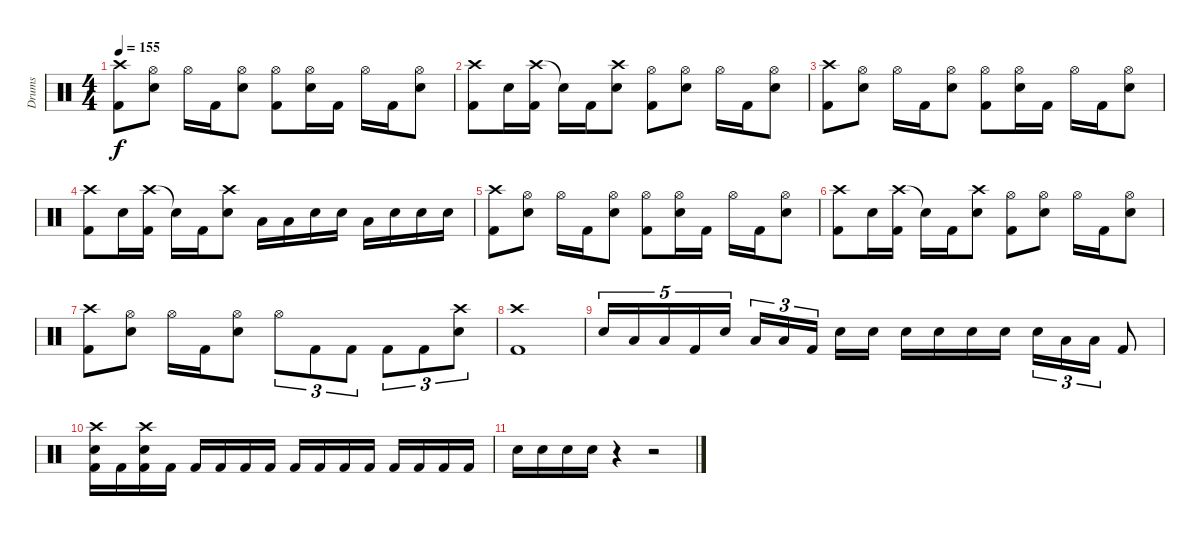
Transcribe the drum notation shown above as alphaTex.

\track ("Drums" "Drums") {instrument percussion}
\staff {score}
\articulation defaults
\ts (4 4)
\tempo 155
\clef neutral
\ks c
("Crash high (hit)" "Kick (hit) 2").8{dy f} ("Hi-Hat (open)" "Snare (hit) 2").8 "Hi-Hat (open)".16 "Kick (hit) 2".16 ("Hi-Hat (open)" "Snare (hit) 2").8 ("Hi-Hat (open)" "Kick (hit) 2").8 ("Hi-Hat (open)" "Snare (hit) 2").16 "Kick (hit) 2".16 "Hi-Hat (open)".16 "Kick (hit) 2".16 ("Hi-Hat (open)" "Snare (hit) 2").8 |
("Crash high (hit)" "Kick (hit) 2").8 "Snare (hit) 2".16 ("Crash high (hit)" "Kick (hit) 2").16 "Snare (hit)"{t}.16 "Kick (hit) 2".16 ("Crash high (hit)" "Snare (hit) 2").8 ("Hi-Hat (open)" "Kick (hit) 2").8 ("Hi-Hat (open)" "Snare (hit) 2").8 "Hi-Hat (open)".16 "Kick (hit) 2".16 ("Hi-Hat (open)" "Snare (hit) 2").8 |
("Crash high (hit)" "Kick (hit) 2").8 ("Hi-Hat (open)" "Snare (hit) 2").8 "Hi-Hat (open)".16 "Kick (hit) 2".16 ("Hi-Hat (open)" "Snare (hit) 2").8 ("Hi-Hat (open)" "Kick (hit) 2").8 ("Hi-Hat (open)" "Snare (hit) 2").16 "Kick (hit) 2".16 "Hi-Hat (open)".16 "Kick (hit) 2".16 ("Hi-Hat (open)" "Snare (hit) 2").8 |
("Crash high (hit)" "Kick (hit) 2").8 "Snare (hit) 2".16 ("Crash high (hit)" "Kick (hit) 2").16 "Snare (hit)"{t}.16 "Kick (hit) 2".16 ("Crash high (hit)" "Snare (hit) 2").8 "Low Tom (hit)".16 "Low Tom (hit)".16 "Snare (hit) 2".16 "Snare (hit) 2".16 "Low Floor Tom (hit)".16 "Snare (hit) 2".16 "Snare (hit) 2".16 "Snare (hit) 2".16 |
("Crash high (hit)" "Kick (hit) 2").8 ("Hi-Hat (open)" "Snare (hit) 2").8 "Hi-Hat (open)".16 "Kick (hit) 2".16 ("Hi-Hat (open)" "Snare (hit) 2").8 ("Hi-Hat (open)" "Kick (hit) 2").8 ("Hi-Hat (open)" "Snare (hit) 2").16 "Kick (hit) 2".16 "Hi-Hat (open)".16 "Kick (hit) 2".16 ("Hi-Hat (open)" "Snare (hit) 2").8 |
("Crash high (hit)" "Kick (hit) 2").8 "Snare (hit) 2".16 ("Crash high (hit)" "Kick (hit) 2").16 "Snare (hit)"{t}.16 "Kick (hit) 2".16 ("Crash high (hit)" "Snare (hit) 2").8 ("Hi-Hat (open)" "Kick (hit) 2").8 ("Hi-Hat (open)" "Snare (hit) 2").8 "Hi-Hat (open)".16 "Kick (hit) 2".16 ("Hi-Hat (open)" "Snare (hit) 2").8 |
("Crash high (hit)" "Kick (hit) 2").8 ("Hi-Hat (open)" "Snare (hit) 2").8 "Hi-Hat (open)".16 "Kick (hit) 2".16 ("Hi-Hat (open)" "Snare (hit) 2").8 "Hi-Hat (open)".8{tu (3 2)} "Kick (hit) 2".8{tu (3 2)} "Kick (hit) 2".8{tu (3 2)} "Kick (hit) 2".8{tu (3 2)} "Kick (hit) 2".8{tu (3 2)} ("Crash high (hit)" "Snare (hit) 2").8{tu (3 2)} |
("Crash high (hit)" "Kick (hit) 2").1 |
"Snare (hit) 2".16{tu (5 4)} "Low Tom (hit)".16{tu (5 4)} "Low Tom (hit)".16{tu (5 4)} "Kick (hit) 2".16{tu (5 4)} "Snare (hit) 2".16{tu (5 4)} "Low Tom (hit)".16{tu (3 2)} "Low Tom (hit)".16{tu (3 2)} "Kick (hit) 2".16{tu (3 2)} "Snare (hit) 2".16 "Snare (hit) 2".16 "Snare (hit) 2".16 "Snare (hit) 2".16 "Snare (hit) 2".16 "Snare (hit) 2".16 "Snare (hit) 2".16{tu (3 2)} "Low Tom (hit)".16{tu (3 2)} "Low Floor Tom (hit)".16{tu (3 2)} "Kick (hit) 2".8 |
("Crash high (hit)" "Snare (hit) 2" "Kick (hit) 2").16 "Kick (hit) 2".16 ("Crash high (hit)" "Snare (hit) 2" "Kick (hit) 2").16 "Kick (hit) 2".16 "Kick (hit) 2".16 "Kick (hit) 2".16 "Kick (hit) 2".16 "Kick (hit) 2".16 "Kick (hit) 2".16 "Kick (hit) 2".16 "Kick (hit) 2".16 "Kick (hit) 2".16 "Kick (hit) 2".16 "Kick (hit) 2".16 "Kick (hit) 2".16 "Kick (hit) 2".16 |
"Snare (hit) 2".16 "Snare (hit) 2".16 "Snare (hit) 2".16 "Snare (hit) 2".16 r.4 r.2
